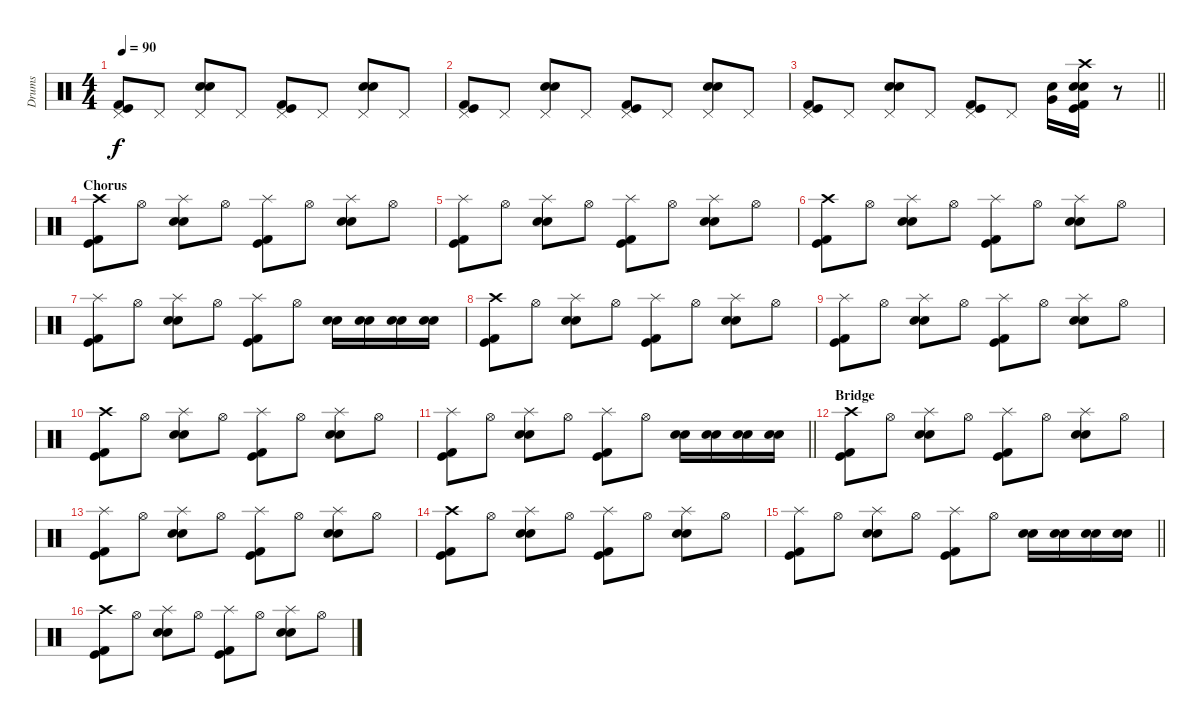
\track ("Drums" "Drums") {instrument percussion}
\staff {score}
\articulation defaults
\ts (4 4)
\tempo 90
\clef neutral
\ks c
("Pedal Hi-Hat (hit)" "Kick (hit) 2" "Kick (hit)").8{dy f} "Pedal Hi-Hat (hit)".8 ("Pedal Hi-Hat (hit)" "Electric Snare (hit)" "Snare (hit) 2").8 "Pedal Hi-Hat (hit)".8 ("Pedal Hi-Hat (hit)" "Kick (hit) 2" "Kick (hit)").8 "Pedal Hi-Hat (hit)".8 ("Pedal Hi-Hat (hit)" "Electric Snare (hit)" "Snare (hit) 2").8 "Pedal Hi-Hat (hit)".8 |
("Pedal Hi-Hat (hit)" "Kick (hit) 2" "Kick (hit)").8 "Pedal Hi-Hat (hit)".8 ("Pedal Hi-Hat (hit)" "Electric Snare (hit)" "Snare (hit) 2").8 "Pedal Hi-Hat (hit)".8 ("Pedal Hi-Hat (hit)" "Kick (hit) 2" "Kick (hit)").8 "Pedal Hi-Hat (hit)".8 ("Pedal Hi-Hat (hit)" "Electric Snare (hit)" "Snare (hit) 2").8 "Pedal Hi-Hat (hit)".8 |
\barLineRight lightlight
("Pedal Hi-Hat (hit)" "Kick (hit) 2" "Kick (hit)").8 "Pedal Hi-Hat (hit)".8 ("Pedal Hi-Hat (hit)" "Electric Snare (hit)" "Snare (hit) 2").8 "Pedal Hi-Hat (hit)".8 ("Pedal Hi-Hat (hit)" "Kick (hit) 2" "Kick (hit)").8 "Pedal Hi-Hat (hit)".8 ("Very Low Tom (hit)" "Snare (hit) 2").16 ("Crash high (hit)" "Electric Snare (hit)" "Snare (hit) 2" "Kick (hit) 2" "Kick (hit)").16 r.8 |
\section ("" "Chorus")
("Crash high (hit)" "Kick (hit) 2" "Kick (hit)").8 "Hi-Hat (open)".8 ("Splash (hit)" "Electric Snare (hit)" "Snare (hit) 2").8 "Hi-Hat (open)".8 ("Splash (hit)" "Kick (hit) 2" "Kick (hit)").8 "Hi-Hat (open)".8 ("Splash (hit)" "Electric Snare (hit)" "Snare (hit) 2").8 "Hi-Hat (open)".8 |
("Splash (hit)" "Kick (hit) 2" "Kick (hit)").8 "Hi-Hat (open)".8 ("Splash (hit)" "Electric Snare (hit)" "Snare (hit) 2").8 "Hi-Hat (open)".8 ("Splash (hit)" "Kick (hit) 2" "Kick (hit)").8 "Hi-Hat (open)".8 ("Splash (hit)" "Electric Snare (hit)" "Snare (hit) 2").8 "Hi-Hat (open)".8 |
("Crash high (hit)" "Kick (hit) 2" "Kick (hit)").8 "Hi-Hat (open)".8 ("Splash (hit)" "Electric Snare (hit)" "Snare (hit) 2").8 "Hi-Hat (open)".8 ("Splash (hit)" "Kick (hit) 2" "Kick (hit)").8 "Hi-Hat (open)".8 ("Splash (hit)" "Electric Snare (hit)" "Snare (hit) 2").8 "Hi-Hat (open)".8 |
("Splash (hit)" "Kick (hit) 2" "Kick (hit)").8 "Hi-Hat (open)".8 ("Splash (hit)" "Electric Snare (hit)" "Snare (hit) 2").8 "Hi-Hat (open)".8 ("Splash (hit)" "Kick (hit) 2" "Kick (hit)").8 "Hi-Hat (open)".8 ("Electric Snare (hit)" "Snare (hit) 2").16 ("Electric Snare (hit)" "Snare (hit) 2").16 ("Electric Snare (hit)" "Snare (hit) 2").16 ("Electric Snare (hit)" "Snare (hit) 2").16 |
("Crash high (hit)" "Kick (hit) 2" "Kick (hit)").8 "Hi-Hat (open)".8 ("Splash (hit)" "Electric Snare (hit)" "Snare (hit) 2").8 "Hi-Hat (open)".8 ("Splash (hit)" "Kick (hit) 2" "Kick (hit)").8 "Hi-Hat (open)".8 ("Splash (hit)" "Electric Snare (hit)" "Snare (hit) 2").8 "Hi-Hat (open)".8 |
("Splash (hit)" "Kick (hit) 2" "Kick (hit)").8 "Hi-Hat (open)".8 ("Splash (hit)" "Electric Snare (hit)" "Snare (hit) 2").8 "Hi-Hat (open)".8 ("Splash (hit)" "Kick (hit) 2" "Kick (hit)").8 "Hi-Hat (open)".8 ("Splash (hit)" "Electric Snare (hit)" "Snare (hit) 2").8 "Hi-Hat (open)".8 |
("Crash high (hit)" "Kick (hit) 2" "Kick (hit)").8 "Hi-Hat (open)".8 ("Splash (hit)" "Electric Snare (hit)" "Snare (hit) 2").8 "Hi-Hat (open)".8 ("Splash (hit)" "Kick (hit) 2" "Kick (hit)").8 "Hi-Hat (open)".8 ("Splash (hit)" "Electric Snare (hit)" "Snare (hit) 2").8 "Hi-Hat (open)".8 |
\barLineRight lightlight
("Splash (hit)" "Kick (hit) 2" "Kick (hit)").8 "Hi-Hat (open)".8 ("Splash (hit)" "Electric Snare (hit)" "Snare (hit) 2").8 "Hi-Hat (open)".8 ("Splash (hit)" "Kick (hit) 2" "Kick (hit)").8 "Hi-Hat (open)".8 ("Electric Snare (hit)" "Snare (hit) 2").16 ("Electric Snare (hit)" "Snare (hit) 2").16 ("Electric Snare (hit)" "Snare (hit) 2").16 ("Electric Snare (hit)" "Snare (hit) 2").16 |
\section ("" "Bridge")
("Crash high (hit)" "Kick (hit) 2" "Kick (hit)").8 "Hi-Hat (open)".8 ("Splash (hit)" "Electric Snare (hit)" "Snare (hit) 2").8 "Hi-Hat (open)".8 ("Splash (hit)" "Kick (hit) 2" "Kick (hit)").8 "Hi-Hat (open)".8 ("Splash (hit)" "Electric Snare (hit)" "Snare (hit) 2").8 "Hi-Hat (open)".8 |
("Splash (hit)" "Kick (hit) 2" "Kick (hit)").8 "Hi-Hat (open)".8 ("Splash (hit)" "Electric Snare (hit)" "Snare (hit) 2").8 "Hi-Hat (open)".8 ("Splash (hit)" "Kick (hit) 2" "Kick (hit)").8 "Hi-Hat (open)".8 ("Splash (hit)" "Electric Snare (hit)" "Snare (hit) 2").8 "Hi-Hat (open)".8 |
("Crash high (hit)" "Kick (hit) 2" "Kick (hit)").8 "Hi-Hat (open)".8 ("Splash (hit)" "Electric Snare (hit)" "Snare (hit) 2").8 "Hi-Hat (open)".8 ("Splash (hit)" "Kick (hit) 2" "Kick (hit)").8 "Hi-Hat (open)".8 ("Splash (hit)" "Electric Snare (hit)" "Snare (hit) 2").8 "Hi-Hat (open)".8 |
\barLineRight lightlight
("Splash (hit)" "Kick (hit) 2" "Kick (hit)").8 "Hi-Hat (open)".8 ("Splash (hit)" "Electric Snare (hit)" "Snare (hit) 2").8 "Hi-Hat (open)".8 ("Splash (hit)" "Kick (hit) 2" "Kick (hit)").8 "Hi-Hat (open)".8 ("Electric Snare (hit)" "Snare (hit) 2").16 ("Electric Snare (hit)" "Snare (hit) 2").16 ("Electric Snare (hit)" "Snare (hit) 2").16 ("Electric Snare (hit)" "Snare (hit) 2").16 |
("Crash high (hit)" "Kick (hit) 2" "Kick (hit)").8 "Hi-Hat (open)".8 ("Splash (hit)" "Electric Snare (hit)" "Snare (hit) 2").8 "Hi-Hat (open)".8 ("Splash (hit)" "Kick (hit) 2" "Kick (hit)").8 "Hi-Hat (open)".8 ("Splash (hit)" "Electric Snare (hit)" "Snare (hit) 2").8 "Hi-Hat (open)".8
